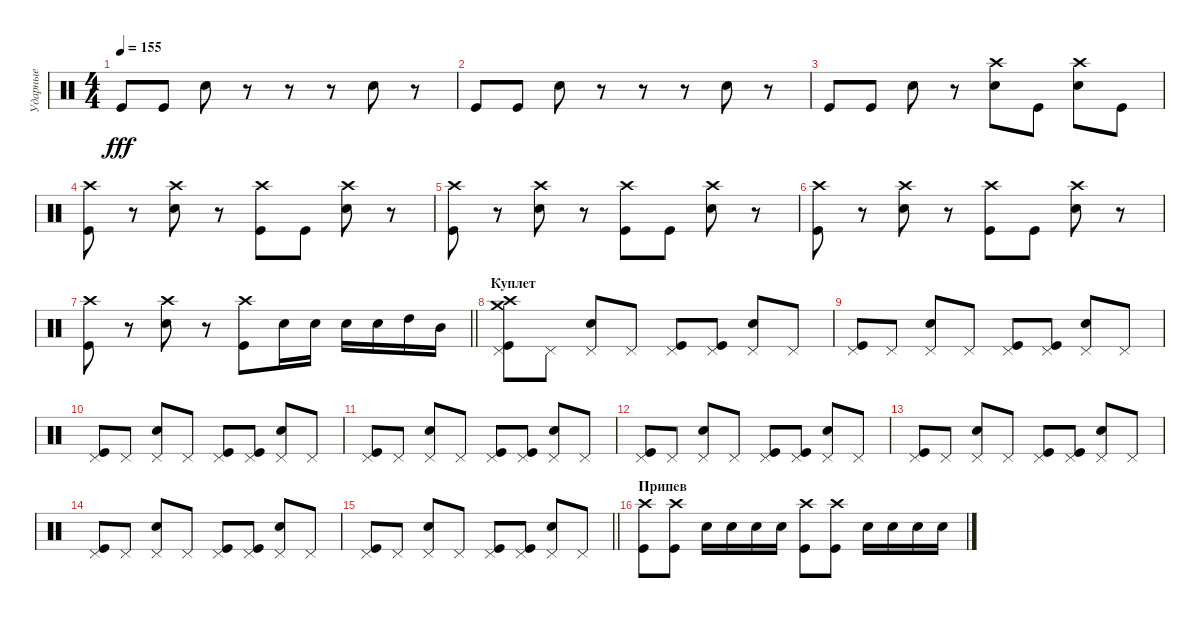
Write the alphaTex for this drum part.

\track ("Ударные" "Ударные") {instrument percussion}
\staff {score}
\articulation defaults
\ts (4 4)
\tempo 155
\clef neutral
\ks c "Kick (hit)".8{dy fff} "Kick (hit)".8 "Electric Snare (hit)".8
r.8 r.8 r.8 "Electric Snare (hit)".8 r.8 |
"Kick (hit)".8 "Kick (hit)".8 "Electric Snare (hit)".8 r.8 r.8 r.8 "Electric Snare (hit)".8 r.8 |
"Kick (hit)".8 "Kick (hit)".8 "Electric Snare (hit)".8 r.8 ("Electric Snare (hit)" "Crash high (hit)").8 "Kick (hit)".8 ("Electric Snare (hit)" "Crash high (hit)").8 "Kick (hit)".8 |
("Crash high (hit)" "Kick (hit)").8 r.8 ("Crash high (hit)" "Electric Snare (hit)").8 r.8 ("Crash high (hit)" "Kick (hit)").8 "Kick (hit)".8 ("Crash high (hit)" "Electric Snare (hit)").8 r.8 |
("Crash high (hit)" "Kick (hit)").8 r.8 ("Crash high (hit)" "Electric Snare (hit)").8 r.8 ("Crash high (hit)" "Kick (hit)").8 "Kick (hit)".8 ("Crash high (hit)" "Electric Snare (hit)").8 r.8 |
("Crash high (hit)" "Kick (hit)").8 r.8 ("Crash high (hit)" "Electric Snare (hit)").8 r.8 ("Crash high (hit)" "Kick (hit)").8 "Kick (hit)".8 ("Crash high (hit)" "Electric Snare (hit)").8 r.8 |
\barLineRight lightlight
("Crash high (hit)" "Kick (hit)").8 r.8 ("Crash high (hit)" "Electric Snare (hit)").8 r.8 ("Crash high (hit)" "Kick (hit)").8 "Electric Snare (hit)".16 "Electric Snare (hit)".16 "Electric Snare (hit)".16 "Electric Snare (hit)".16 "High Tom (hit)".16 "Mid Tom (hit)".16 |
\section ("" "Куплет")
("Pedal Hi-Hat (hit)" "Kick (hit)" "Crash medium (hit)" "Crash high (hit)").8 "Pedal Hi-Hat (hit)".8 ("Pedal Hi-Hat (hit)" "Electric Snare (hit)").8 "Pedal Hi-Hat (hit)".8 ("Pedal Hi-Hat (hit)" "Kick (hit)").8 ("Pedal Hi-Hat (hit)" "Kick (hit)").8 ("Pedal Hi-Hat (hit)" "Electric Snare (hit)").8 "Pedal Hi-Hat (hit)".8 |
("Pedal Hi-Hat (hit)" "Kick (hit)").8 "Pedal Hi-Hat (hit)".8 ("Pedal Hi-Hat (hit)" "Electric Snare (hit)").8 "Pedal Hi-Hat (hit)".8 ("Pedal Hi-Hat (hit)" "Kick (hit)").8 ("Pedal Hi-Hat (hit)" "Kick (hit)").8 ("Pedal Hi-Hat (hit)" "Electric Snare (hit)").8 "Pedal Hi-Hat (hit)".8 |
("Pedal Hi-Hat (hit)" "Kick (hit)").8 "Pedal Hi-Hat (hit)".8 ("Pedal Hi-Hat (hit)" "Electric Snare (hit)").8 "Pedal Hi-Hat (hit)".8 ("Pedal Hi-Hat (hit)" "Kick (hit)").8 ("Pedal Hi-Hat (hit)" "Kick (hit)").8 ("Pedal Hi-Hat (hit)" "Electric Snare (hit)").8 "Pedal Hi-Hat (hit)".8 |
("Pedal Hi-Hat (hit)" "Kick (hit)").8 "Pedal Hi-Hat (hit)".8 ("Pedal Hi-Hat (hit)" "Electric Snare (hit)").8 "Pedal Hi-Hat (hit)".8 ("Pedal Hi-Hat (hit)" "Kick (hit)").8 ("Pedal Hi-Hat (hit)" "Kick (hit)").8 ("Pedal Hi-Hat (hit)" "Electric Snare (hit)").8 "Pedal Hi-Hat (hit)".8 |
("Pedal Hi-Hat (hit)" "Kick (hit)").8 "Pedal Hi-Hat (hit)".8 ("Pedal Hi-Hat (hit)" "Electric Snare (hit)").8 "Pedal Hi-Hat (hit)".8 ("Pedal Hi-Hat (hit)" "Kick (hit)").8 ("Pedal Hi-Hat (hit)" "Kick (hit)").8 ("Pedal Hi-Hat (hit)" "Electric Snare (hit)").8 "Pedal Hi-Hat (hit)".8 |
("Pedal Hi-Hat (hit)" "Kick (hit)").8 "Pedal Hi-Hat (hit)".8 ("Pedal Hi-Hat (hit)" "Electric Snare (hit)").8 "Pedal Hi-Hat (hit)".8 ("Pedal Hi-Hat (hit)" "Kick (hit)").8 ("Pedal Hi-Hat (hit)" "Kick (hit)").8 ("Pedal Hi-Hat (hit)" "Electric Snare (hit)").8 "Pedal Hi-Hat (hit)".8 |
("Pedal Hi-Hat (hit)" "Kick (hit)").8 "Pedal Hi-Hat (hit)".8 ("Pedal Hi-Hat (hit)" "Electric Snare (hit)").8 "Pedal Hi-Hat (hit)".8 ("Pedal Hi-Hat (hit)" "Kick (hit)").8 ("Pedal Hi-Hat (hit)" "Kick (hit)").8 ("Pedal Hi-Hat (hit)" "Electric Snare (hit)").8 "Pedal Hi-Hat (hit)".8 |
\barLineRight lightlight
("Pedal Hi-Hat (hit)" "Kick (hit)").8 "Pedal Hi-Hat (hit)".8 ("Pedal Hi-Hat (hit)" "Electric Snare (hit)").8 "Pedal Hi-Hat (hit)".8 ("Pedal Hi-Hat (hit)" "Kick (hit)").8 ("Pedal Hi-Hat (hit)" "Kick (hit)").8 ("Pedal Hi-Hat (hit)" "Electric Snare (hit)").8 "Pedal Hi-Hat (hit)".8 |
\section ("" "Припев")
("Crash high (hit)" "Kick (hit)").8 ("Crash high (hit)" "Kick (hit)").8 "Electric Snare (hit)".16 "Electric Snare (hit)".16 "Electric Snare (hit)".16 "Electric Snare (hit)".16 ("Crash high (hit)" "Kick (hit)").8 ("Crash high (hit)" "Kick (hit)").8 "Electric Snare (hit)".16 "Electric Snare (hit)".16 "Electric Snare (hit)".16 "Electric Snare (hit)".16
